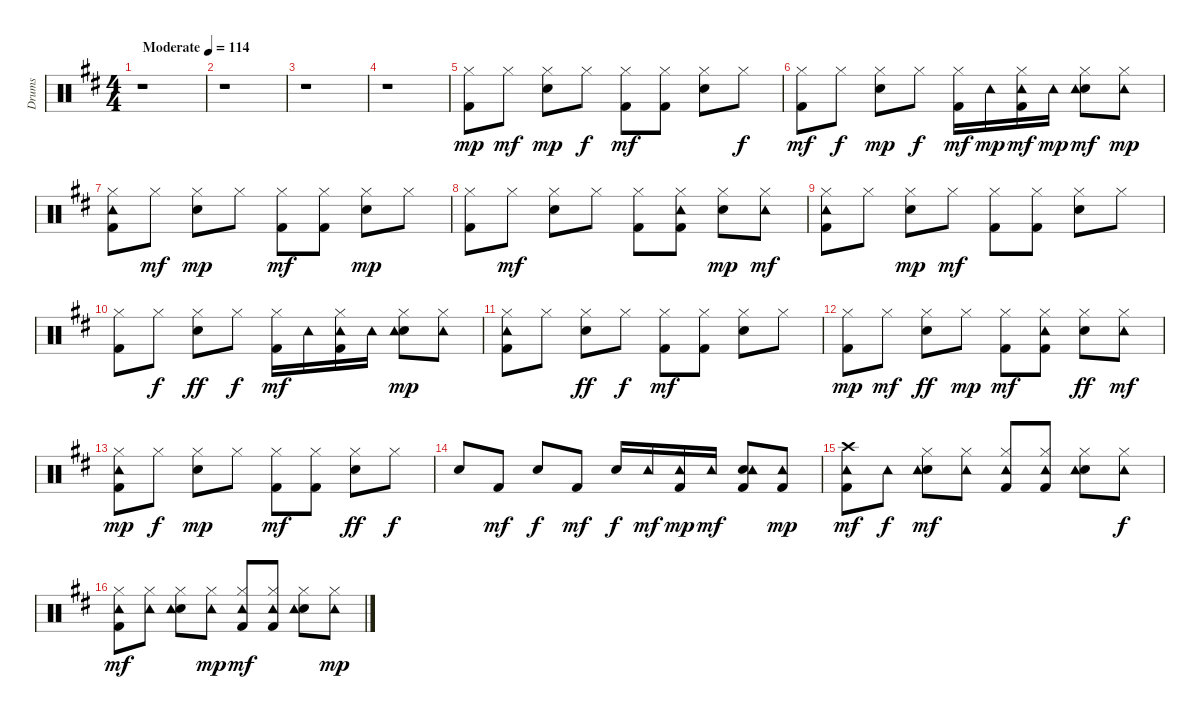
\track ("Drums" "Drums") {instrument percussion}
\staff {score}
\articulation defaults
\ts (4 4)
\tempo (114 "Moderate")
\clef neutral
\ks d
r.1{dy mp} |
r.1 |
r.1 |
r.1 |
("Kick (hit) 2" "Hi-Hat (closed)").8 "Hi-Hat (closed)".8{dy mf} ("Snare (hit) 2" "Hi-Hat (closed)").8{dy mp} "Hi-Hat (closed)".8{dy f} ("Kick (hit) 2" "Hi-Hat (closed)").8{dy mf} ("Kick (hit) 2" "Hi-Hat (closed)").8 ("Snare (hit) 2" "Hi-Hat (closed)").8 "Hi-Hat (closed)".8{dy f} |
("Kick (hit) 2" "Hi-Hat (closed)").8{dy mf} "Hi-Hat (closed)".8{dy f} ("Snare (hit) 2" "Hi-Hat (closed)").8{dy mp} "Hi-Hat (closed)".8{dy f} ("Kick (hit) 2" "Hi-Hat (closed)").16{dy mf} "Tambourine (hit)".16{dy mp} ("Kick (hit) 2" "Hi-Hat (closed)" "Tambourine (hit)").16{dy mf} "Tambourine (hit)".16{dy mp} ("Snare (hit) 2" "Hi-Hat (closed)" "Tambourine (hit)").8{dy mf} ("Hi-Hat (closed)" "Tambourine (hit)").8{dy mp} |
("Kick (hit) 2" "Hi-Hat (closed)" "Tambourine (hit)").8 "Hi-Hat (closed)".8{dy mf} ("Snare (hit) 2" "Hi-Hat (closed)").8{dy mp} "Hi-Hat (closed)".8 ("Kick (hit) 2" "Hi-Hat (closed)").8{dy mf} ("Kick (hit) 2" "Hi-Hat (closed)").8 ("Snare (hit) 2" "Hi-Hat (closed)").8{dy mp} "Hi-Hat (closed)".8 |
("Kick (hit) 2" "Hi-Hat (closed)").8 "Hi-Hat (closed)".8{dy mf} ("Snare (hit) 2" "Hi-Hat (closed)").8 "Hi-Hat (closed)".8 ("Kick (hit) 2" "Hi-Hat (closed)").8 ("Kick (hit) 2" "Hi-Hat (closed)" "Tambourine (hit)").8 ("Snare (hit) 2" "Hi-Hat (closed)").8{dy mp} ("Hi-Hat (closed)" "Tambourine (hit)").8{dy mf} |
("Kick (hit) 2" "Hi-Hat (closed)" "Tambourine (hit)").8 "Hi-Hat (closed)".8 ("Snare (hit) 2" "Hi-Hat (closed)").8{dy mp} "Hi-Hat (closed)".8{dy mf} ("Kick (hit) 2" "Hi-Hat (closed)").8 ("Kick (hit) 2" "Hi-Hat (closed)").8 ("Snare (hit) 2" "Hi-Hat (closed)").8 "Hi-Hat (closed)".8 |
("Kick (hit) 2" "Hi-Hat (closed)").8 "Hi-Hat (closed)".8{dy f} ("Snare (hit) 2" "Hi-Hat (closed)").8{dy ff} "Hi-Hat (closed)".8{dy f} ("Kick (hit) 2" "Hi-Hat (closed)").16{dy mf} "Tambourine (hit)".16 ("Kick (hit) 2" "Hi-Hat (closed)" "Tambourine (hit)").16 "Tambourine (hit)".16 ("Snare (hit) 2" "Hi-Hat (closed)" "Tambourine (hit)").8{dy mp} ("Hi-Hat (closed)" "Tambourine (hit)").8 |
("Kick (hit) 2" "Hi-Hat (closed)" "Tambourine (hit)").8 "Hi-Hat (closed)".8 ("Snare (hit) 2" "Hi-Hat (closed)").8{dy ff} "Hi-Hat (closed)".8{dy f} ("Kick (hit) 2" "Hi-Hat (closed)").8{dy mf} ("Kick (hit) 2" "Hi-Hat (closed)").8 ("Snare (hit) 2" "Hi-Hat (closed)").8 "Hi-Hat (closed)".8 |
("Kick (hit) 2" "Hi-Hat (closed)").8{dy mp} "Hi-Hat (closed)".8{dy mf} ("Snare (hit) 2" "Hi-Hat (closed)").8{dy ff} "Hi-Hat (closed)".8{dy mp} ("Kick (hit) 2" "Hi-Hat (closed)").8{dy mf} ("Kick (hit) 2" "Hi-Hat (closed)" "Tambourine (hit)").8 ("Snare (hit) 2" "Hi-Hat (closed)").8{dy ff} ("Hi-Hat (closed)" "Tambourine (hit)").8{dy mf} |
("Kick (hit) 2" "Hi-Hat (closed)" "Tambourine (hit)").8{dy mp} "Hi-Hat (closed)".8{dy f} ("Snare (hit) 2" "Hi-Hat (closed)").8{dy mp} "Hi-Hat (closed)".8 ("Kick (hit) 2" "Hi-Hat (closed)").8{dy mf} ("Kick (hit) 2" "Hi-Hat (closed)").8 ("Snare (hit) 2" "Hi-Hat (closed)").8{dy ff} "Hi-Hat (closed)".8{dy f} |
"Snare (hit) 2".8 "Kick (hit) 2".8{dy mf} "Snare (hit) 2".8{dy f} "Kick (hit) 2".8{dy mf} "Snare (hit) 2".16{dy f} "Tambourine (hit)".16{dy mf} ("Kick (hit) 2" "Tambourine (hit)").16{dy mp} "Tambourine (hit)".16{dy mf} ("Kick (hit) 2" "Snare (hit) 2" "Tambourine (hit)").8 ("Kick (hit) 2" "Tambourine (hit)").8{dy mp} |
("Kick (hit) 2" "Crash high (hit)" "Tambourine (hit)").8{dy mf} "Tambourine (hit)".8{dy f} ("Snare (hit) 2" "Hi-Hat (closed)" "Tambourine (hit)").8{dy mf} ("Hi-Hat (closed)" "Tambourine (hit)").8 ("Kick (hit) 2" "Hi-Hat (closed)" "Tambourine (hit)").8 ("Kick (hit) 2" "Hi-Hat (closed)" "Tambourine (hit)").8 ("Snare (hit) 2" "Hi-Hat (closed)" "Tambourine (hit)").8 ("Hi-Hat (closed)" "Tambourine (hit)").8{dy f} |
("Kick (hit) 2" "Hi-Hat (closed)" "Tambourine (hit)").8{dy mf} ("Hi-Hat (closed)" "Tambourine (hit)").8 ("Snare (hit) 2" "Hi-Hat (closed)" "Tambourine (hit)").8 ("Hi-Hat (closed)" "Tambourine (hit)").8{dy mp} ("Kick (hit) 2" "Hi-Hat (closed)" "Tambourine (hit)").8{dy mf} ("Kick (hit) 2" "Hi-Hat (closed)" "Tambourine (hit)").8 ("Snare (hit) 2" "Hi-Hat (closed)" "Tambourine (hit)").8 ("Hi-Hat (closed)" "Tambourine (hit)").8{dy mp}
